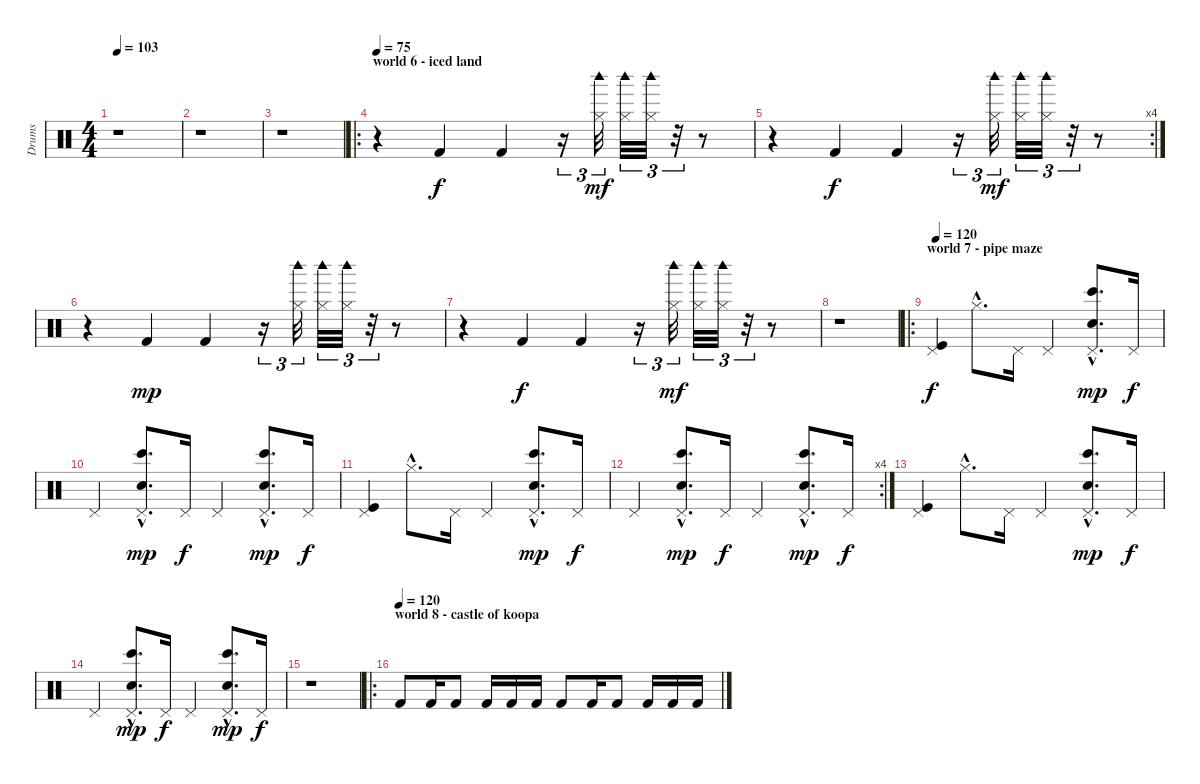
\track ("Drums" "Drums") {instrument percussion}
\staff {score}
\articulation defaults
\ts (4 4)
\tempo 103
\clef neutral
\ks c
r.1{dy f} |
r.1 |
r.1 |
\ro
\section ("" "world 6 - iced land")
\tempo 75
r.4{volume 9 balance 8} "Kick (hit) 2".4 "Kick (hit) 2".4 r.16{tu (3 2)} ("Hi-Hat (closed)" "Woodblock high (hit)").32{tu (3 2) dy mf} ("Hi-Hat (closed)" "Woodblock high (hit)").32{tu (3 2)} ("Hi-Hat (closed)" "Woodblock high (hit)").32{tu (3 2)} r.32{tu (3 2)} r.8 |
\rc 4
r.4 "Kick (hit) 2".4{dy f} "Kick (hit) 2".4 r.16{tu (3 2)} ("Hi-Hat (closed)" "Woodblock high (hit)").32{tu (3 2) dy mf} ("Hi-Hat (closed)" "Woodblock high (hit)").32{tu (3 2)} ("Hi-Hat (closed)" "Woodblock high (hit)").32{tu (3 2)} r.32{tu (3 2)} r.8 |
r.4 "Kick (hit) 2".4{dy mp} "Kick (hit) 2".4 r.16{tu (3 2)} ("Hi-Hat (closed)" "Woodblock high (hit)").32{tu (3 2)} ("Hi-Hat (closed)" "Woodblock high (hit)").32{tu (3 2)} ("Hi-Hat (closed)" "Woodblock high (hit)").32{tu (3 2)} r.32{tu (3 2)} r.8 |
r.4 "Kick (hit) 2".4{dy f} "Kick (hit) 2".4 r.16{tu (3 2)} ("Hi-Hat (closed)" "Woodblock high (hit)").32{tu (3 2) dy mf} ("Hi-Hat (closed)" "Woodblock high (hit)").32{tu (3 2)} ("Hi-Hat (closed)" "Woodblock high (hit)").32{tu (3 2)} r.32{tu (3 2)} r.8 |
r.1 |
\ro
\section ("" "world 7 - pipe maze")
\tempo 120
("Pedal Hi-Hat (hit)" "Kick (hit)").4{dy f volume 13} "Hi-Hat (closed)"{hac}.8{d} "Pedal Hi-Hat (hit)".16 "Pedal Hi-Hat (hit)".4 ("Pedal Hi-Hat (hit)"{hac} "Bongo High (hit)"{hac} "Electric Snare (hit)"{hac}).8{d dy mp} "Pedal Hi-Hat (hit)".16{dy f} |
"Pedal Hi-Hat (hit)".4 ("Pedal Hi-Hat (hit)"{hac} "Bongo High (hit)"{hac} "Electric Snare (hit)"{hac}).8{d dy mp} "Pedal Hi-Hat (hit)".16{dy f} "Pedal Hi-Hat (hit)".4 ("Pedal Hi-Hat (hit)"{hac} "Bongo High (hit)"{hac} "Electric Snare (hit)"{hac}).8{d dy mp} "Pedal Hi-Hat (hit)".16{dy f} |
("Pedal Hi-Hat (hit)" "Kick (hit)").4 "Hi-Hat (closed)"{hac}.8{d} "Pedal Hi-Hat (hit)".16 "Pedal Hi-Hat (hit)".4 ("Pedal Hi-Hat (hit)"{hac} "Bongo High (hit)"{hac} "Electric Snare (hit)"{hac}).8{d dy mp} "Pedal Hi-Hat (hit)".16{dy f} |
\rc 4 "Pedal Hi-Hat (hit)".4
("Pedal Hi-Hat (hit)"{hac} "Bongo High (hit)"{hac} "Electric Snare (hit)"{hac}).8{d dy mp} "Pedal Hi-Hat (hit)".16{dy f} "Pedal Hi-Hat (hit)".4 ("Pedal Hi-Hat (hit)"{hac} "Bongo High (hit)"{hac} "Electric Snare (hit)"{hac}).8{d dy mp} "Pedal Hi-Hat (hit)".16{dy f} |
("Pedal Hi-Hat (hit)" "Kick (hit)").4 "Hi-Hat (closed)"{hac}.8{d} "Pedal Hi-Hat (hit)".16 "Pedal Hi-Hat (hit)".4 ("Pedal Hi-Hat (hit)"{hac} "Bongo High (hit)"{hac} "Electric Snare (hit)"{hac}).8{d dy mp} "Pedal Hi-Hat (hit)".16{dy f} |
"Pedal Hi-Hat (hit)".4 ("Pedal Hi-Hat (hit)"{hac} "Bongo High (hit)"{hac} "Electric Snare (hit)"{hac}).8{d dy mp} "Pedal Hi-Hat (hit)".16{dy f} "Pedal Hi-Hat (hit)".4 ("Pedal Hi-Hat (hit)"{hac} "Bongo High (hit)"{hac} "Electric Snare (hit)"{hac}).8{d dy mp} "Pedal Hi-Hat (hit)".16{dy f} |
r.1 |
\ro
\section ("" "world 8 - castle of koopa")
\tempo (120)
"Kick (hit) 2".8{volume 12} "Kick (hit) 2".16 "Kick (hit) 2".8 "Kick (hit) 2".16 "Kick (hit) 2".16 "Kick (hit) 2".16 "Kick (hit) 2".8 "Kick (hit) 2".16 "Kick (hit) 2".8 "Kick (hit) 2".16 "Kick (hit) 2".16 "Kick (hit) 2".16
